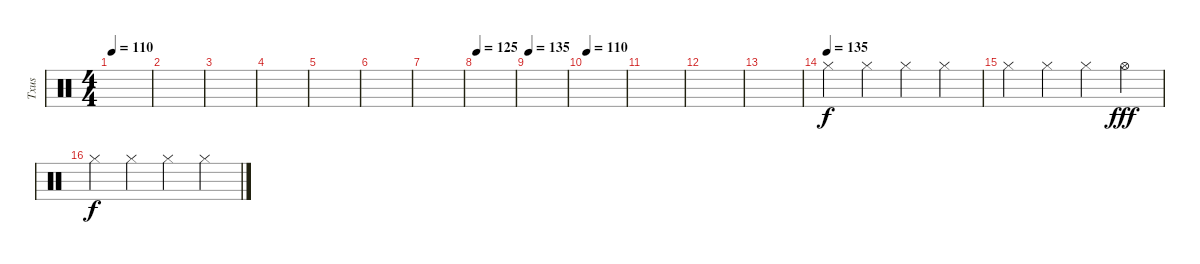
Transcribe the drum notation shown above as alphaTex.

\track ("Txus" "Txus") {instrument percussion}
\staff {score}
\articulation defaults
\ts (4 4)
\tempo 110
\clef neutral
\ks c
|
|
|
|
|
|
|
\tempo 125
|
\tempo 135
|
\tempo 110
|
|
|
|
\tempo (135)
"Hi-Hat (closed)".4{volume 5} "Hi-Hat (closed)".4 "Hi-Hat (closed)".4 "Hi-Hat (closed)".4 |
"Hi-Hat (closed)".4 "Hi-Hat (closed)".4 "Hi-Hat (closed)".4 "Hi-Hat (open)".4{dy fff} |
"Hi-Hat (closed)".4{dy f} "Hi-Hat (closed)".4 "Hi-Hat (closed)".4 "Hi-Hat (closed)".4
